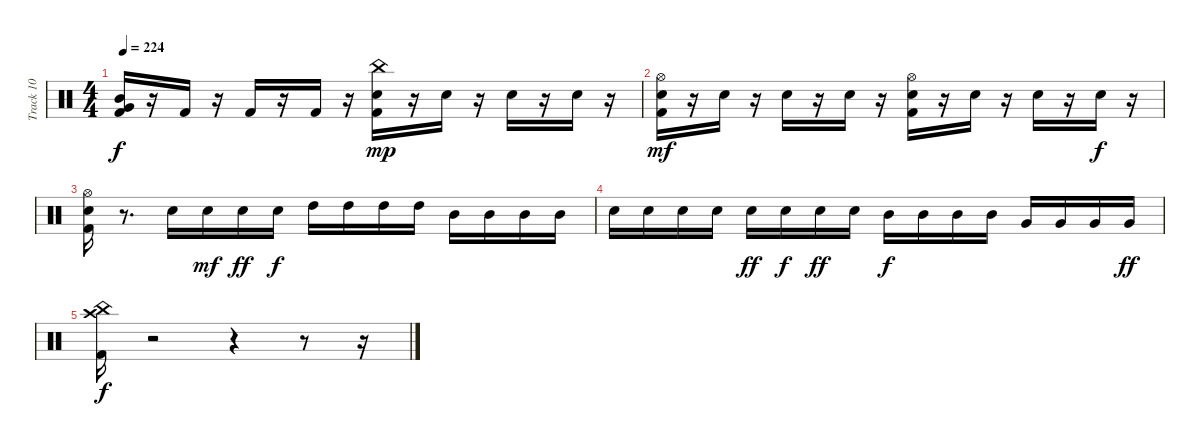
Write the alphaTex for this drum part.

\track ("Track 10" "Track 10") {instrument percussion}
\staff {score}
\articulation defaults
\ts (4 4)
\tempo 224
\clef neutral
\ks c
("Kick (hit) 2" "Very Low Tom (hit)" "Mid Tom (hit)").16{dy f} r.16 "Kick (hit) 2".16 r.16 "Kick (hit) 2".16 r.16 "Kick (hit) 2".16 r.16 ("Kick (hit) 2" "Snare (hit) 2" "China (hit)").16{dy mp} r.16 "Snare (hit) 2".16 r.16 "Snare (hit) 2".16 r.16 "Snare (hit) 2".16 r.16 |
("Kick (hit) 2" "Snare (hit) 2" "Hi-Hat (open)").16{dy mf} r.16 "Snare (hit) 2".16 r.16 "Snare (hit) 2".16 r.16 "Snare (hit) 2".16 r.16 ("Kick (hit) 2" "Snare (hit) 2" "Hi-Hat (open)").16 r.16 "Snare (hit) 2".16 r.16 "Snare (hit) 2".16 r.16 "Snare (hit) 2".16{dy f} r.16 |
("Kick (hit) 2" "Snare (hit) 2" "Hi-Hat (open)").16 r.8{d} "Snare (hit) 2".16 "Snare (hit) 2".16{dy mf} "Snare (hit) 2".16{dy ff} "Snare (hit) 2".16{dy f} "High Tom (hit)".16 "High Tom (hit)".16 "High Tom (hit)".16 "High Tom (hit)".16 "Mid Tom (hit)".16 "Mid Tom (hit)".16 "Mid Tom (hit)".16 "Mid Tom (hit)".16 |
"Snare (hit) 2".16 "Snare (hit) 2".16 "Snare (hit) 2".16 "Snare (hit) 2".16 "Snare (hit) 2".16{dy ff} "Snare (hit) 2".16{dy f} "Snare (hit) 2".16{dy ff} "Snare (hit) 2".16 "Mid Tom (hit)".16{dy f} "Mid Tom (hit)".16 "Mid Tom (hit)".16 "Mid Tom (hit)".16 "Very Low Tom (hit)".16 "Very Low Tom (hit)".16 "Very Low Tom (hit)".16 "Very Low Tom (hit)".16{dy ff} |
("Kick (hit) 2" "Crash high (hit)" "China (hit)").16{dy f} r.2 r.4 r.8 r.16
